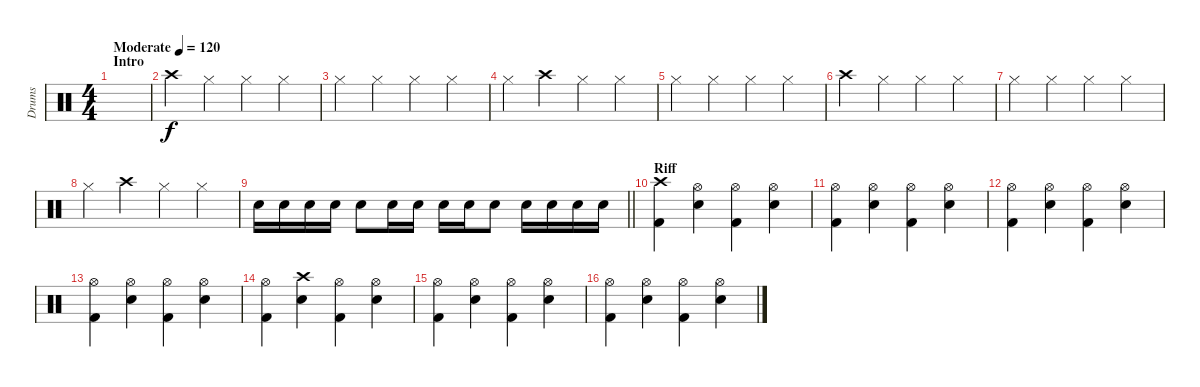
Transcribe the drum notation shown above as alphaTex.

\track ("Drums" "Drums") {instrument percussion}
\staff {score}
\articulation defaults
\ts (4 4)
\section ("" "Intro")
\tempo (120 "Moderate")
\clef neutral
\ks c
|
"Crash high (hit)".4 "Hi-Hat (closed)".4 "Hi-Hat (closed)".4 "Hi-Hat (closed)".4 |
"Hi-Hat (closed)".4 "Hi-Hat (closed)".4 "Hi-Hat (closed)".4 "Hi-Hat (closed)".4 |
"Hi-Hat (closed)".4 "Crash high (hit)".4 "Hi-Hat (closed)".4 "Hi-Hat (closed)".4 |
"Hi-Hat (closed)".4 "Hi-Hat (closed)".4 "Hi-Hat (closed)".4 "Hi-Hat (closed)".4 |
"Crash high (hit)".4 "Hi-Hat (closed)".4 "Hi-Hat (closed)".4 "Hi-Hat (closed)".4 |
"Hi-Hat (closed)".4 "Hi-Hat (closed)".4 "Hi-Hat (closed)".4 "Hi-Hat (closed)".4 |
"Hi-Hat (closed)".4 "Crash high (hit)".4 "Hi-Hat (closed)".4 "Hi-Hat (closed)".4 |
\barLineRight lightlight "Snare (hit) 2".16 "Snare (hit) 2".16 "Snare (hit) 2".16 "Snare (hit) 2".16 "Snare (hit) 2".8 "Snare (hit) 2".16 "Snare (hit) 2".16 "Snare (hit) 2".16 "Snare (hit) 2".16 "Snare (hit) 2".8 "Snare (hit) 2".16 "Snare (hit) 2".16 "Snare (hit) 2".16 "Snare (hit) 2".16
|
\section ("" "Riff")
("Crash high (hit)" "Kick (hit) 2").4 ("Hi-Hat (open)" "Snare (hit) 2").4 ("Hi-Hat (open)" "Kick (hit) 2").4 ("Hi-Hat (open)" "Snare (hit) 2").4 |
("Hi-Hat (open)" "Kick (hit) 2").4 ("Hi-Hat (open)" "Snare (hit) 2").4 ("Hi-Hat (open)" "Kick (hit) 2").4 ("Hi-Hat (open)" "Snare (hit) 2").4 |
("Hi-Hat (open)" "Kick (hit) 2").4 ("Hi-Hat (open)" "Snare (hit) 2").4 ("Hi-Hat (open)" "Kick (hit) 2").4 ("Hi-Hat (open)" "Snare (hit) 2").4 |
("Hi-Hat (open)" "Kick (hit) 2").4 ("Hi-Hat (open)" "Snare (hit) 2").4 ("Hi-Hat (open)" "Kick (hit) 2").4 ("Hi-Hat (open)" "Snare (hit) 2").4 |
("Hi-Hat (open)" "Kick (hit) 2").4 ("Crash high (hit)" "Snare (hit) 2").4 ("Hi-Hat (open)" "Kick (hit) 2").4 ("Hi-Hat (open)" "Snare (hit) 2").4 |
("Hi-Hat (open)" "Kick (hit) 2").4 ("Hi-Hat (open)" "Snare (hit) 2").4 ("Hi-Hat (open)" "Kick (hit) 2").4 ("Hi-Hat (open)" "Snare (hit) 2").4 |
("Hi-Hat (open)" "Kick (hit) 2").4 ("Hi-Hat (open)" "Snare (hit) 2").4 ("Hi-Hat (open)" "Kick (hit) 2").4 ("Hi-Hat (open)" "Snare (hit) 2").4
